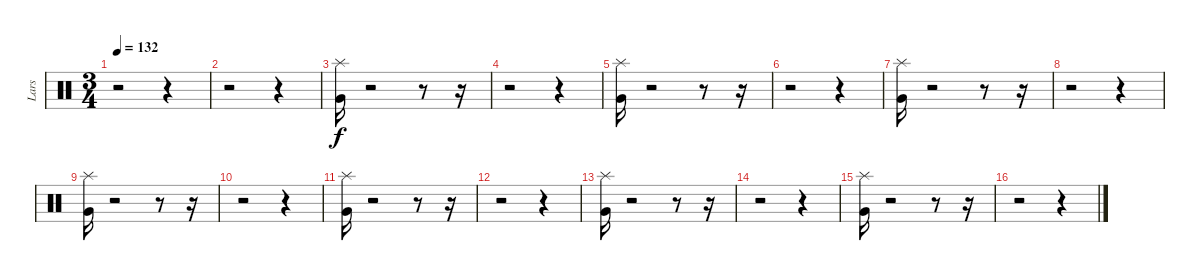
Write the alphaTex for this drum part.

\track ("Lars" "Lars") {instrument percussion}
\staff {score}
\articulation defaults
\ts (3 4)
\tempo 132
\clef neutral
\ks c
r.2{dy f} r.4 |
r.2 r.4 |
("Very Low Tom (hit)" "Splash (hit)").16 r.2 r.8 r.16 |
r.2 r.4 |
("Very Low Tom (hit)" "Splash (hit)").16 r.2 r.8 r.16 |
r.2 r.4 |
("Very Low Tom (hit)" "Splash (hit)").16 r.2 r.8 r.16 |
r.2 r.4 |
("Very Low Tom (hit)" "Splash (hit)").16 r.2 r.8 r.16 |
r.2 r.4 |
("Very Low Tom (hit)" "Splash (hit)").16 r.2 r.8 r.16 |
r.2 r.4 |
("Very Low Tom (hit)" "Splash (hit)").16 r.2 r.8 r.16 |
r.2 r.4 |
("Very Low Tom (hit)" "Splash (hit)").16 r.2 r.8 r.16 |
r.2 r.4
